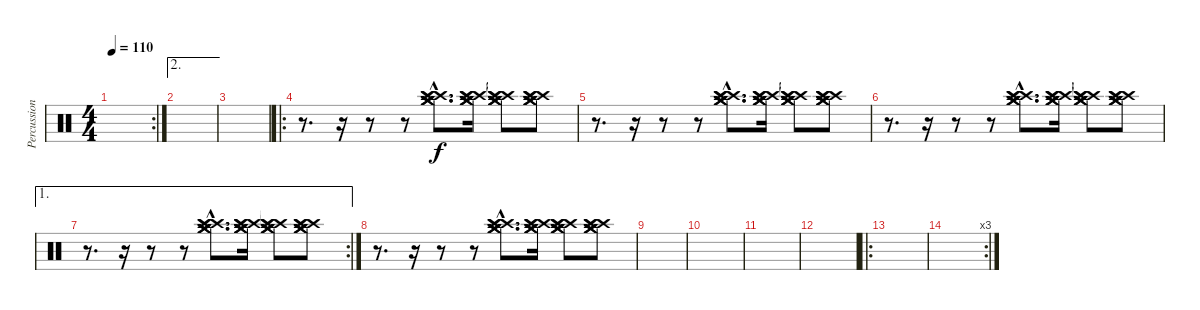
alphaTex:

\track ("Percussion 4" "Percussion") {instrument percussion}
\staff {score}
\articulation defaults
\rc 2
\ts (4 4)
\tempo 110
\clef neutral
\ks c
|
\ae 2
|
|
\ro
r.8{d} r.16 r.8 r.8 ("Crash medium (hit)"{hac} "Crash medium (hit)"{hac} "Crash medium (hit)"{hac} "Crash high (hit)"{hac} "Crash high (hit)"{hac} "Crash high (hit)"{hac}).8{d} ("Crash medium (hit)" "Crash medium (hit)" "Crash medium (hit)" "Crash high (hit)" "Crash high (hit)" "Crash high (hit)").16 ("Crash medium (hit)"{t} "Crash medium (hit)"{t} "Crash medium (hit)"{t} "Crash high (hit)"{t} "Crash high (hit)"{t} "Crash high (hit)"{t}).8 ("Crash medium (hit)" "Crash medium (hit)" "Crash medium (hit)" "Crash high (hit)" "Crash high (hit)" "Crash high (hit)").8 |
r.8{d} r.16 r.8 r.8 ("Crash medium (hit)"{hac} "Crash medium (hit)"{hac} "Crash medium (hit)"{hac} "Crash high (hit)"{hac} "Crash high (hit)"{hac} "Crash high (hit)"{hac}).8{d} ("Crash medium (hit)" "Crash medium (hit)" "Crash medium (hit)" "Crash high (hit)" "Crash high (hit)" "Crash high (hit)").16 ("Crash medium (hit)"{t} "Crash medium (hit)"{t} "Crash medium (hit)"{t} "Crash high (hit)"{t} "Crash high (hit)"{t} "Crash high (hit)"{t}).8 ("Crash medium (hit)" "Crash medium (hit)" "Crash medium (hit)" "Crash high (hit)" "Crash high (hit)" "Crash high (hit)").8 |
r.8{d} r.16 r.8 r.8 ("Crash medium (hit)"{hac} "Crash medium (hit)"{hac} "Crash medium (hit)"{hac} "Crash high (hit)"{hac} "Crash high (hit)"{hac} "Crash high (hit)"{hac}).8{d} ("Crash medium (hit)" "Crash medium (hit)" "Crash medium (hit)" "Crash high (hit)" "Crash high (hit)" "Crash high (hit)").16 ("Crash medium (hit)"{t} "Crash medium (hit)"{t} "Crash medium (hit)"{t} "Crash high (hit)"{t} "Crash high (hit)"{t} "Crash high (hit)"{t}).8 ("Crash medium (hit)" "Crash medium (hit)" "Crash medium (hit)" "Crash high (hit)" "Crash high (hit)" "Crash high (hit)").8 |
\ae 1
\rc 2
r.8{d} r.16 r.8 r.8 ("Crash medium (hit)"{hac} "Crash medium (hit)"{hac} "Crash medium (hit)"{hac} "Crash high (hit)"{hac} "Crash high (hit)"{hac} "Crash high (hit)"{hac}).8{d} ("Crash medium (hit)" "Crash medium (hit)" "Crash medium (hit)" "Crash high (hit)" "Crash high (hit)" "Crash high (hit)").16 ("Crash medium (hit)"{t} "Crash medium (hit)"{t} "Crash medium (hit)"{t} "Crash high (hit)"{t} "Crash high (hit)"{t} "Crash high (hit)"{t}).8 ("Crash medium (hit)" "Crash medium (hit)" "Crash medium (hit)" "Crash high (hit)" "Crash high (hit)" "Crash high (hit)").8 |
r.8{d} r.16 r.8 r.8 ("Crash medium (hit)"{hac} "Crash medium (hit)"{hac} "Crash medium (hit)"{hac} "Crash high (hit)"{hac} "Crash high (hit)"{hac} "Crash high (hit)"{hac}).8{d} ("Crash medium (hit)" "Crash medium (hit)" "Crash medium (hit)" "Crash high (hit)" "Crash high (hit)" "Crash high (hit)").16 ("Crash medium (hit)"{t} "Crash medium (hit)"{t} "Crash medium (hit)"{t} "Crash high (hit)"{t} "Crash high (hit)"{t} "Crash high (hit)"{t}).8 ("Crash medium (hit)" "Crash medium (hit)" "Crash medium (hit)" "Crash high (hit)" "Crash high (hit)" "Crash high (hit)").8 |
|
|
|
|
\ro
|
\rc 3
